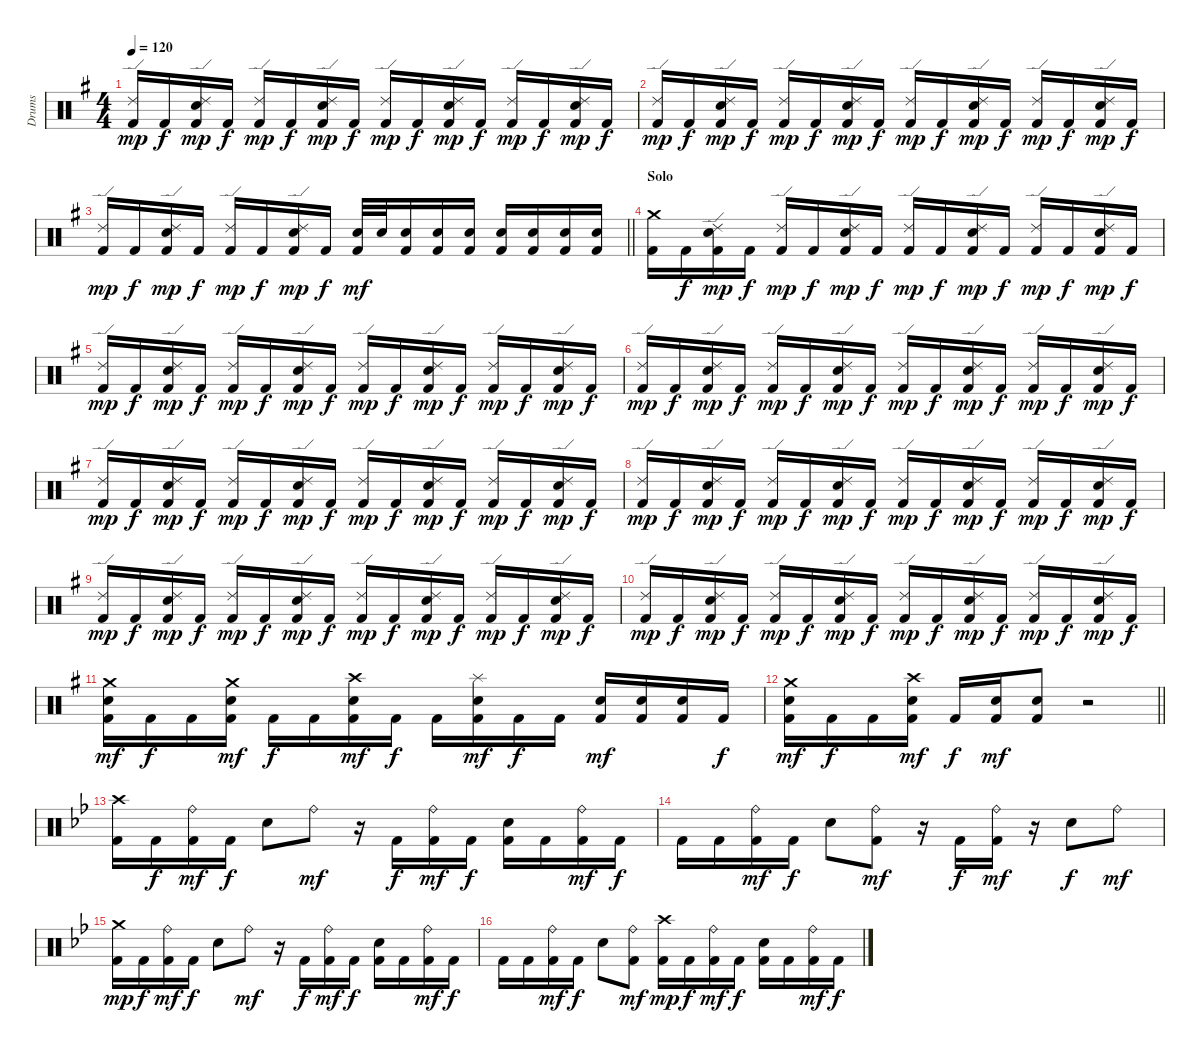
\track ("Drums" "Drums") {instrument percussion}
\staff {score}
\articulation defaults
\ts (4 4)
\tempo 120
\clef neutral
\ks eminor
("Ride (edge) 2" "Kick (hit) 2").16{dy mp} "Kick (hit) 2".16{dy f} ("Ride (edge) 2" "Electric Snare (hit)" "Kick (hit) 2").16{dy mp} "Kick (hit) 2".16{dy f} ("Ride (edge) 2" "Kick (hit) 2").16{dy mp} "Kick (hit) 2".16{dy f} ("Ride (edge) 2" "Electric Snare (hit)" "Kick (hit) 2").16{dy mp} "Kick (hit) 2".16{dy f} ("Ride (edge) 2" "Kick (hit) 2").16{dy mp} "Kick (hit) 2".16{dy f} ("Ride (edge) 2" "Electric Snare (hit)" "Kick (hit) 2").16{dy mp} "Kick (hit) 2".16{dy f} ("Ride (edge) 2" "Kick (hit) 2").16{dy mp} "Kick (hit) 2".16{dy f} ("Ride (edge) 2" "Electric Snare (hit)" "Kick (hit) 2").16{dy mp} "Kick (hit) 2".16{dy f} |
("Ride (edge) 2" "Kick (hit) 2").16{dy mp} "Kick (hit) 2".16{dy f} ("Ride (edge) 2" "Electric Snare (hit)" "Kick (hit) 2").16{dy mp} "Kick (hit) 2".16{dy f} ("Ride (edge) 2" "Kick (hit) 2").16{dy mp} "Kick (hit) 2".16{dy f} ("Ride (edge) 2" "Electric Snare (hit)" "Kick (hit) 2").16{dy mp} "Kick (hit) 2".16{dy f} ("Ride (edge) 2" "Kick (hit) 2").16{dy mp} "Kick (hit) 2".16{dy f} ("Ride (edge) 2" "Electric Snare (hit)" "Kick (hit) 2").16{dy mp} "Kick (hit) 2".16{dy f} ("Ride (edge) 2" "Kick (hit) 2").16{dy mp} "Kick (hit) 2".16{dy f} ("Ride (edge) 2" "Electric Snare (hit)" "Kick (hit) 2").16{dy mp} "Kick (hit) 2".16{dy f} |
\barLineRight lightlight
("Ride (edge) 2" "Kick (hit) 2").16{dy mp} "Kick (hit) 2".16{dy f} ("Ride (edge) 2" "Electric Snare (hit)" "Kick (hit) 2").16{dy mp} "Kick (hit) 2".16{dy f} ("Ride (edge) 2" "Kick (hit) 2").16{dy mp} "Kick (hit) 2".16{dy f} ("Ride (edge) 2" "Electric Snare (hit)" "Kick (hit) 2").16{dy mp} "Kick (hit) 2".16{dy f} ("Electric Snare (hit)" "Kick (hit) 2").32{dy mf} "Electric Snare (hit)".32 ("Electric Snare (hit)" "Kick (hit) 2").16 ("Electric Snare (hit)" "Kick (hit) 2").16 ("Electric Snare (hit)" "Kick (hit) 2").16 ("Electric Snare (hit)" "Kick (hit) 2").16 ("Electric Snare (hit)" "Kick (hit) 2").16 ("Electric Snare (hit)" "Kick (hit) 2").16 ("Electric Snare (hit)" "Kick (hit) 2").16 |
\section ("" "Solo")
("Crash medium (hit)" "Kick (hit) 2").16 "Kick (hit) 2".16{dy f} ("Ride (edge) 2" "Electric Snare (hit)" "Kick (hit) 2").16{dy mp} "Kick (hit) 2".16{dy f} ("Ride (edge) 2" "Kick (hit) 2").16{dy mp} "Kick (hit) 2".16{dy f} ("Ride (edge) 2" "Electric Snare (hit)" "Kick (hit) 2").16{dy mp} "Kick (hit) 2".16{dy f} ("Ride (edge) 2" "Kick (hit) 2").16{dy mp} "Kick (hit) 2".16{dy f} ("Ride (edge) 2" "Electric Snare (hit)" "Kick (hit) 2").16{dy mp} "Kick (hit) 2".16{dy f} ("Ride (edge) 2" "Kick (hit) 2").16{dy mp} "Kick (hit) 2".16{dy f} ("Ride (edge) 2" "Electric Snare (hit)" "Kick (hit) 2").16{dy mp} "Kick (hit) 2".16{dy f} |
("Ride (edge) 2" "Kick (hit) 2").16{dy mp} "Kick (hit) 2".16{dy f} ("Ride (edge) 2" "Electric Snare (hit)" "Kick (hit) 2").16{dy mp} "Kick (hit) 2".16{dy f} ("Ride (edge) 2" "Kick (hit) 2").16{dy mp} "Kick (hit) 2".16{dy f} ("Ride (edge) 2" "Electric Snare (hit)" "Kick (hit) 2").16{dy mp} "Kick (hit) 2".16{dy f} ("Ride (edge) 2" "Kick (hit) 2").16{dy mp} "Kick (hit) 2".16{dy f} ("Ride (edge) 2" "Electric Snare (hit)" "Kick (hit) 2").16{dy mp} "Kick (hit) 2".16{dy f} ("Ride (edge) 2" "Kick (hit) 2").16{dy mp} "Kick (hit) 2".16{dy f} ("Ride (edge) 2" "Electric Snare (hit)" "Kick (hit) 2").16{dy mp} "Kick (hit) 2".16{dy f} |
("Ride (edge) 2" "Kick (hit) 2").16{dy mp} "Kick (hit) 2".16{dy f} ("Ride (edge) 2" "Electric Snare (hit)" "Kick (hit) 2").16{dy mp} "Kick (hit) 2".16{dy f} ("Ride (edge) 2" "Kick (hit) 2").16{dy mp} "Kick (hit) 2".16{dy f} ("Ride (edge) 2" "Electric Snare (hit)" "Kick (hit) 2").16{dy mp} "Kick (hit) 2".16{dy f} ("Ride (edge) 2" "Kick (hit) 2").16{dy mp} "Kick (hit) 2".16{dy f} ("Ride (edge) 2" "Electric Snare (hit)" "Kick (hit) 2").16{dy mp} "Kick (hit) 2".16{dy f} ("Ride (edge) 2" "Kick (hit) 2").16{dy mp} "Kick (hit) 2".16{dy f} ("Ride (edge) 2" "Electric Snare (hit)" "Kick (hit) 2").16{dy mp} "Kick (hit) 2".16{dy f} |
("Ride (edge) 2" "Kick (hit) 2").16{dy mp} "Kick (hit) 2".16{dy f} ("Ride (edge) 2" "Electric Snare (hit)" "Kick (hit) 2").16{dy mp} "Kick (hit) 2".16{dy f} ("Ride (edge) 2" "Kick (hit) 2").16{dy mp} "Kick (hit) 2".16{dy f} ("Ride (edge) 2" "Electric Snare (hit)" "Kick (hit) 2").16{dy mp} "Kick (hit) 2".16{dy f} ("Ride (edge) 2" "Kick (hit) 2").16{dy mp} "Kick (hit) 2".16{dy f} ("Ride (edge) 2" "Electric Snare (hit)" "Kick (hit) 2").16{dy mp} "Kick (hit) 2".16{dy f} ("Ride (edge) 2" "Kick (hit) 2").16{dy mp} "Kick (hit) 2".16{dy f} ("Ride (edge) 2" "Electric Snare (hit)" "Kick (hit) 2").16{dy mp} "Kick (hit) 2".16{dy f} |
("Ride (edge) 2" "Kick (hit) 2").16{dy mp} "Kick (hit) 2".16{dy f} ("Ride (edge) 2" "Electric Snare (hit)" "Kick (hit) 2").16{dy mp} "Kick (hit) 2".16{dy f} ("Ride (edge) 2" "Kick (hit) 2").16{dy mp} "Kick (hit) 2".16{dy f} ("Ride (edge) 2" "Electric Snare (hit)" "Kick (hit) 2").16{dy mp} "Kick (hit) 2".16{dy f} ("Ride (edge) 2" "Kick (hit) 2").16{dy mp} "Kick (hit) 2".16{dy f} ("Ride (edge) 2" "Electric Snare (hit)" "Kick (hit) 2").16{dy mp} "Kick (hit) 2".16{dy f} ("Ride (edge) 2" "Kick (hit) 2").16{dy mp} "Kick (hit) 2".16{dy f} ("Ride (edge) 2" "Electric Snare (hit)" "Kick (hit) 2").16{dy mp} "Kick (hit) 2".16{dy f} |
("Ride (edge) 2" "Kick (hit) 2").16{dy mp} "Kick (hit) 2".16{dy f} ("Ride (edge) 2" "Electric Snare (hit)" "Kick (hit) 2").16{dy mp} "Kick (hit) 2".16{dy f} ("Ride (edge) 2" "Kick (hit) 2").16{dy mp} "Kick (hit) 2".16{dy f} ("Ride (edge) 2" "Electric Snare (hit)" "Kick (hit) 2").16{dy mp} "Kick (hit) 2".16{dy f} ("Ride (edge) 2" "Kick (hit) 2").16{dy mp} "Kick (hit) 2".16{dy f} ("Ride (edge) 2" "Electric Snare (hit)" "Kick (hit) 2").16{dy mp} "Kick (hit) 2".16{dy f} ("Ride (edge) 2" "Kick (hit) 2").16{dy mp} "Kick (hit) 2".16{dy f} ("Ride (edge) 2" "Electric Snare (hit)" "Kick (hit) 2").16{dy mp} "Kick (hit) 2".16{dy f} |
("Ride (edge) 2" "Kick (hit) 2").16{dy mp} "Kick (hit) 2".16{dy f} ("Ride (edge) 2" "Electric Snare (hit)" "Kick (hit) 2").16{dy mp} "Kick (hit) 2".16{dy f} ("Ride (edge) 2" "Kick (hit) 2").16{dy mp} "Kick (hit) 2".16{dy f} ("Ride (edge) 2" "Electric Snare (hit)" "Kick (hit) 2").16{dy mp} "Kick (hit) 2".16{dy f} ("Ride (edge) 2" "Kick (hit) 2").16{dy mp} "Kick (hit) 2".16{dy f} ("Ride (edge) 2" "Electric Snare (hit)" "Kick (hit) 2").16{dy mp} "Kick (hit) 2".16{dy f} ("Ride (edge) 2" "Kick (hit) 2").16{dy mp} "Kick (hit) 2".16{dy f} ("Ride (edge) 2" "Electric Snare (hit)" "Kick (hit) 2").16{dy mp} "Kick (hit) 2".16{dy f} |
("Crash medium (hit)" "Electric Snare (hit)" "Kick (hit) 2").16{dy mf} "Kick (hit) 2".16{dy f} "Kick (hit) 2".16 ("Crash medium (hit)" "Electric Snare (hit)" "Kick (hit) 2").16{dy mf} "Kick (hit) 2".16{dy f} "Kick (hit) 2".16 ("Crash high (hit)" "Electric Snare (hit)" "Kick (hit) 2").16{dy mf} "Kick (hit) 2".16{dy f} "Kick (hit) 2".16 ("Splash (hit)" "Electric Snare (hit)" "Kick (hit) 2").16{dy mf} "Kick (hit) 2".16{dy f} "Kick (hit) 2".16 ("Electric Snare (hit)" "Kick (hit) 2").16{dy mf} ("Electric Snare (hit)" "Kick (hit) 2").16 ("Electric Snare (hit)" "Kick (hit) 2").16 "Kick (hit) 2".16{dy f} |
\barLineRight lightlight
("Crash medium (hit)" "Electric Snare (hit)" "Kick (hit) 2").16{dy mf} "Kick (hit) 2".16{dy f} "Kick (hit) 2".16 ("Crash high (hit)" "Electric Snare (hit)" "Kick (hit) 2").16{dy mf} "Kick (hit) 2".16{dy f} ("Electric Snare (hit)" "Kick (hit) 2").16{dy mf} ("Electric Snare (hit)" "Kick (hit) 2").8 r.2 |
\section ("" "")
\ks gminor
("Crash high (hit)" "Kick (hit) 2").16 "Kick (hit) 2".16{dy f} ("Ride (bell)" "Kick (hit) 2").16{dy mf} "Kick (hit) 2".16{dy f} "Electric Snare (hit)".8 "Ride (bell)".8{dy mf} r.16 "Kick (hit) 2".16{dy f} ("Ride (bell)" "Kick (hit) 2").16{dy mf} "Kick (hit) 2".16{dy f} ("Electric Snare (hit)" "Kick (hit) 2").16 "Kick (hit) 2".16 ("Ride (bell)" "Kick (hit) 2").16{dy mf} "Kick (hit) 2".16{dy f} |
"Kick (hit) 2".16 "Kick (hit) 2".16 ("Ride (bell)" "Kick (hit) 2").16{dy mf} "Kick (hit) 2".16{dy f} "Electric Snare (hit)".8 ("Ride (bell)" "Kick (hit) 2").8{dy mf} r.16 "Kick (hit) 2".16{dy f} ("Ride (bell)" "Kick (hit) 2").16{dy mf} r.16 "Electric Snare (hit)".8{dy f} "Ride (bell)".8{dy mf} |
("Crash medium (hit)" "Kick (hit) 2").16{dy mp} "Kick (hit) 2".16{dy f} ("Ride (bell)" "Kick (hit) 2").16{dy mf} "Kick (hit) 2".16{dy f} "Electric Snare (hit)".8 "Ride (bell)".8{dy mf} r.16 "Kick (hit) 2".16{dy f} ("Ride (bell)" "Kick (hit) 2").16{dy mf} "Kick (hit) 2".16{dy f} ("Electric Snare (hit)" "Kick (hit) 2").16 "Kick (hit) 2".16 ("Ride (bell)" "Kick (hit) 2").16{dy mf} "Kick (hit) 2".16{dy f} |
"Kick (hit) 2".16 "Kick (hit) 2".16 ("Ride (bell)" "Kick (hit) 2").16{dy mf} "Kick (hit) 2".16{dy f} "Electric Snare (hit)".8 ("Ride (bell)" "Kick (hit) 2").8{dy mf} ("Crash high (hit)" "Kick (hit) 2").16{dy mp} "Kick (hit) 2".16{dy f} ("Ride (bell)" "Kick (hit) 2").16{dy mf} "Kick (hit) 2".16{dy f} ("Electric Snare (hit)" "Kick (hit) 2").16 "Kick (hit) 2".16 ("Ride (bell)" "Kick (hit) 2").16{dy mf} "Kick (hit) 2".16{dy f}
